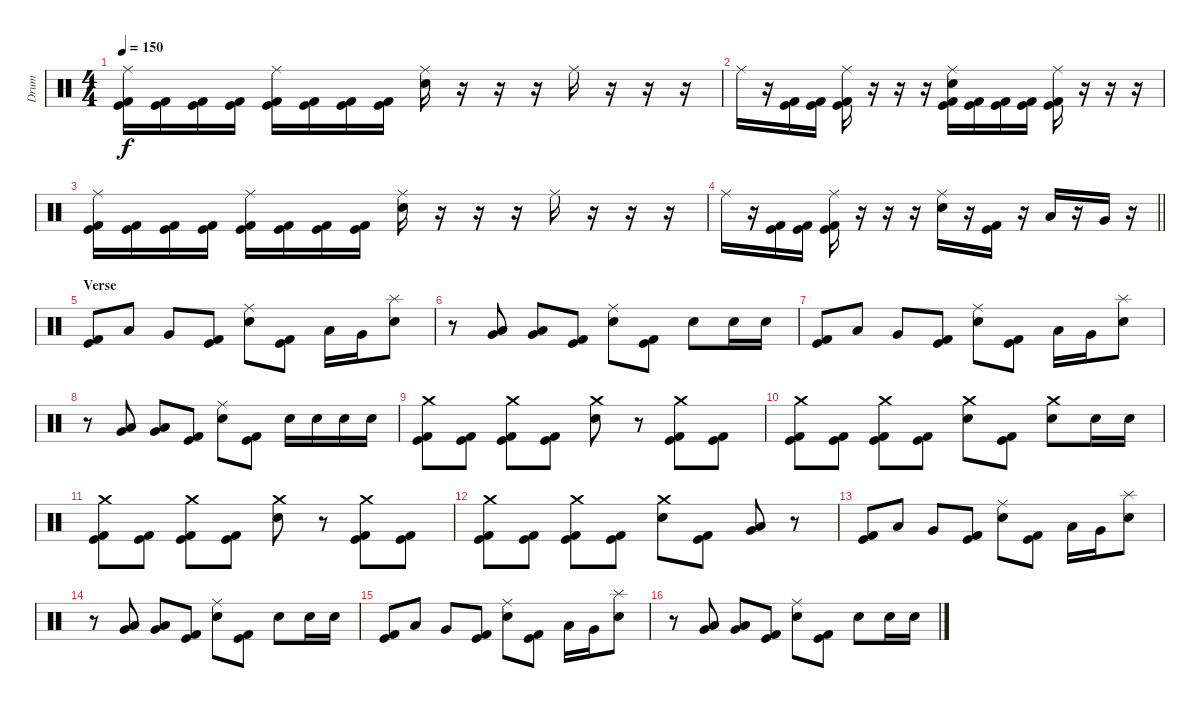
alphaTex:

\track ("Drum" "Drum") {instrument percussion}
\staff {score}
\articulation defaults
\ts (4 4)
\tempo 150
\clef neutral
\ks c
("Ride (middle)" "Kick (hit)" "Kick (hit) 2").16{dy f} ("Kick (hit)" "Kick (hit) 2").16 ("Kick (hit)" "Kick (hit) 2").16 ("Kick (hit)" "Kick (hit) 2").16 ("Ride (middle)" "Kick (hit)" "Kick (hit) 2").16 ("Kick (hit)" "Kick (hit) 2").16 ("Kick (hit)" "Kick (hit) 2").16 ("Kick (hit)" "Kick (hit) 2").16 ("Ride (middle)" "Electric Snare (hit)").16 r.16 r.16 r.16 "Ride (middle)".16 r.16 r.16 r.16 |
"Ride (middle)".16 r.16 ("Kick (hit)" "Kick (hit) 2").16 ("Kick (hit)" "Kick (hit) 2").16 ("Ride (middle)" "Kick (hit)" "Kick (hit) 2").16 r.16 r.16 r.16 ("Ride (middle)" "Electric Snare (hit)" "Kick (hit)" "Kick (hit) 2").16 ("Kick (hit)" "Kick (hit) 2").16 ("Kick (hit)" "Kick (hit) 2").16 ("Kick (hit)" "Kick (hit) 2").16 ("Ride (middle)" "Kick (hit)" "Kick (hit) 2").16 r.16 r.16 r.16 |
("Ride (middle)" "Kick (hit)" "Kick (hit) 2").16 ("Kick (hit)" "Kick (hit) 2").16 ("Kick (hit)" "Kick (hit) 2").16 ("Kick (hit)" "Kick (hit) 2").16 ("Ride (middle)" "Kick (hit)" "Kick (hit) 2").16 ("Kick (hit)" "Kick (hit) 2").16 ("Kick (hit)" "Kick (hit) 2").16 ("Kick (hit)" "Kick (hit) 2").16 ("Ride (middle)" "Electric Snare (hit)").16 r.16 r.16 r.16 "Ride (middle)".16 r.16 r.16 r.16 |
\barLineRight lightlight "Ride (middle)".16
r.16 ("Kick (hit)" "Kick (hit) 2").16 ("Kick (hit)" "Kick (hit) 2").16 ("Ride (middle)" "Kick (hit)" "Kick (hit) 2").16 r.16 r.16 r.16 ("Ride (middle)" "Electric Snare (hit)").16 r.16 ("Kick (hit)" "Kick (hit) 2").16 r.16 "Low Tom (hit)".16 r.16 "Very Low Tom (hit)".16 r.16 |
\section ("" "Verse")
("Kick (hit)" "Kick (hit) 2").8 "Low Tom (hit)".8 "Very Low Tom (hit)".8 ("Kick (hit)" "Kick (hit) 2").8 ("Ride (middle)" "Electric Snare (hit)").8 ("Kick (hit)" "Kick (hit) 2").8 "Low Tom (hit)".16 "Very Low Tom (hit)".16 ("Splash (hit)" "Electric Snare (hit)").8 |
r.8 ("Very Low Tom (hit)" "Low Tom (hit)").8 ("Very Low Tom (hit)" "Low Tom (hit)").8 ("Kick (hit)" "Kick (hit) 2").8 ("Ride (middle)" "Electric Snare (hit)").8 ("Kick (hit)" "Kick (hit) 2").8 "Electric Snare (hit)".8 "Electric Snare (hit)".16 "Electric Snare (hit)".16 |
("Kick (hit)" "Kick (hit) 2").8 "Low Tom (hit)".8 "Very Low Tom (hit)".8 ("Kick (hit)" "Kick (hit) 2").8 ("Ride (middle)" "Electric Snare (hit)").8 ("Kick (hit)" "Kick (hit) 2").8 "Low Tom (hit)".16 "Very Low Tom (hit)".16 ("Splash (hit)" "Electric Snare (hit)").8 |
r.8 ("Very Low Tom (hit)" "Low Tom (hit)").8 ("Very Low Tom (hit)" "Low Tom (hit)").8 ("Kick (hit)" "Kick (hit) 2").8 ("Ride (middle)" "Electric Snare (hit)").8 ("Kick (hit)" "Kick (hit) 2").8 "Electric Snare (hit)".16 "Electric Snare (hit)".16 "Electric Snare (hit)".16 "Electric Snare (hit)".16 |
("Crash medium (hit)" "Kick (hit)" "Kick (hit) 2").8 ("Kick (hit)" "Kick (hit) 2").8 ("Crash medium (hit)" "Kick (hit)" "Kick (hit) 2").8 ("Kick (hit)" "Kick (hit) 2").8 ("Crash medium (hit)" "Electric Snare (hit)").8 r.8 ("Crash medium (hit)" "Kick (hit)" "Kick (hit) 2").8 ("Kick (hit)" "Kick (hit) 2").8 |
("Crash medium (hit)" "Kick (hit)" "Kick (hit) 2").8 ("Kick (hit)" "Kick (hit) 2").8 ("Crash medium (hit)" "Kick (hit)" "Kick (hit) 2").8 ("Kick (hit)" "Kick (hit) 2").8 ("Crash medium (hit)" "Electric Snare (hit)").8 ("Kick (hit)" "Kick (hit) 2").8 ("Crash medium (hit)" "Electric Snare (hit)").8 "Electric Snare (hit)".16 "Electric Snare (hit)".16 |
("Crash medium (hit)" "Kick (hit)" "Kick (hit) 2").8 ("Kick (hit)" "Kick (hit) 2").8 ("Crash medium (hit)" "Kick (hit)" "Kick (hit) 2").8 ("Kick (hit)" "Kick (hit) 2").8 ("Crash medium (hit)" "Electric Snare (hit)").8 r.8 ("Crash medium (hit)" "Kick (hit)" "Kick (hit) 2").8 ("Kick (hit)" "Kick (hit) 2").8 |
("Crash medium (hit)" "Kick (hit)" "Kick (hit) 2").8 ("Kick (hit)" "Kick (hit) 2").8 ("Crash medium (hit)" "Kick (hit)" "Kick (hit) 2").8 ("Kick (hit)" "Kick (hit) 2").8 ("Crash medium (hit)" "Electric Snare (hit)").8 ("Kick (hit)" "Kick (hit) 2").8 ("Low Floor Tom (hit)" "Very Low Tom (hit)").8 r.8 |
("Kick (hit)" "Kick (hit) 2").8 "Low Tom (hit)".8 "Very Low Tom (hit)".8 ("Kick (hit)" "Kick (hit) 2").8 ("Ride (middle)" "Electric Snare (hit)").8 ("Kick (hit)" "Kick (hit) 2").8 "Low Tom (hit)".16 "Very Low Tom (hit)".16 ("Splash (hit)" "Electric Snare (hit)").8 |
r.8 ("Very Low Tom (hit)" "Low Tom (hit)").8 ("Very Low Tom (hit)" "Low Tom (hit)").8 ("Kick (hit)" "Kick (hit) 2").8 ("Ride (middle)" "Electric Snare (hit)").8 ("Kick (hit)" "Kick (hit) 2").8 "Electric Snare (hit)".8 "Electric Snare (hit)".16 "Electric Snare (hit)".16 |
("Kick (hit)" "Kick (hit) 2").8 "Low Tom (hit)".8 "Very Low Tom (hit)".8 ("Kick (hit)" "Kick (hit) 2").8 ("Ride (middle)" "Electric Snare (hit)").8 ("Kick (hit)" "Kick (hit) 2").8 "Low Tom (hit)".16 "Very Low Tom (hit)".16 ("Splash (hit)" "Electric Snare (hit)").8 |
r.8 ("Very Low Tom (hit)" "Low Tom (hit)").8 ("Very Low Tom (hit)" "Low Tom (hit)").8 ("Kick (hit)" "Kick (hit) 2").8 ("Ride (middle)" "Electric Snare (hit)").8 ("Kick (hit)" "Kick (hit) 2").8 "Electric Snare (hit)".8 "Electric Snare (hit)".16 "Electric Snare (hit)".16
